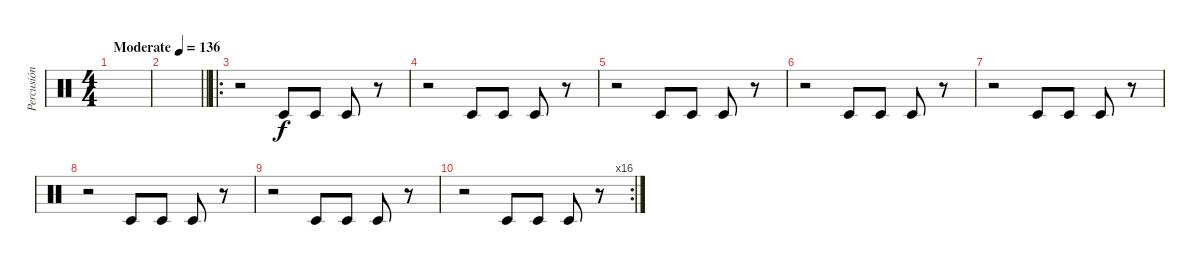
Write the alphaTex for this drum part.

\track ("Percusión" "Percusión") {instrument percussion}
\staff {score}
\articulation defaults
\ts (4 4)
\tempo (136 "Moderate")
\clef neutral
\ks c
|
\barLineRight lightlight
|
\ro
r.2 "Timbale low (hit)".8 "Timbale low (hit)".8 "Timbale low (hit)".8 r.8 |
r.2 "Timbale low (hit)".8 "Timbale low (hit)".8 "Timbale low (hit)".8 r.8 |
r.2 "Timbale low (hit)".8 "Timbale low (hit)".8 "Timbale low (hit)".8 r.8 |
r.2 "Timbale low (hit)".8 "Timbale low (hit)".8 "Timbale low (hit)".8 r.8 |
r.2 "Timbale low (hit)".8 "Timbale low (hit)".8 "Timbale low (hit)".8 r.8 |
r.2 "Timbale low (hit)".8 "Timbale low (hit)".8 "Timbale low (hit)".8 r.8 |
r.2 "Timbale low (hit)".8 "Timbale low (hit)".8 "Timbale low (hit)".8 r.8 |
\rc 16
r.2 "Timbale low (hit)".8 "Timbale low (hit)".8 "Timbale low (hit)".8 r.8
